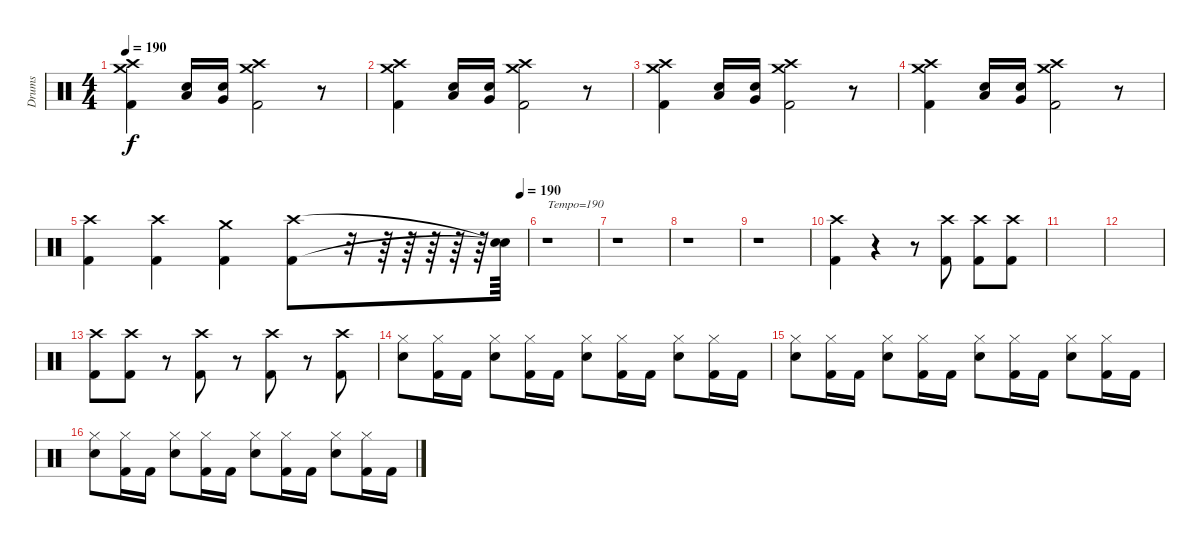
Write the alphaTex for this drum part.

\track ("Drums" "Drums") {instrument percussion}
\staff {score}
\articulation defaults
\ts (4 4)
\tempo 190
\clef neutral
\ks c
("Crash high (hit)" "Crash medium (hit)" "Kick (hit) 2").4{dy f} ("Low Tom (hit)" "Snare (hit) 2").16 ("Very Low Tom (hit)" "Snare (hit) 2").16 ("Crash high (hit)" "Crash medium (hit)" "Kick (hit) 2").2 r.8 |
("Crash high (hit)" "Crash medium (hit)" "Kick (hit) 2").4 ("Low Tom (hit)" "Snare (hit) 2").16 ("Very Low Tom (hit)" "Snare (hit) 2").16 ("Crash high (hit)" "Crash medium (hit)" "Kick (hit) 2").2 r.8 |
("Crash high (hit)" "Crash medium (hit)" "Kick (hit) 2").4 ("Low Tom (hit)" "Snare (hit) 2").16 ("Very Low Tom (hit)" "Snare (hit) 2").16 ("Crash high (hit)" "Crash medium (hit)" "Kick (hit) 2").2 r.8 |
("Crash high (hit)" "Crash medium (hit)" "Kick (hit) 2").4 ("Low Tom (hit)" "Snare (hit) 2").16 ("Very Low Tom (hit)" "Snare (hit) 2").16 ("Crash high (hit)" "Crash medium (hit)" "Kick (hit) 2").2 r.8 |
\tempo (190 0.984375)
("Crash high (hit)" "Kick (hit) 2").4 ("Crash high (hit)" "Kick (hit) 2").4 ("Crash medium (hit)" "Kick (hit) 2").4 ("Crash high (hit)" "Kick (hit) 2").8 r.32 r.64 r.64 r.64 r.64 r.64 ("Snare (hit)"{t} "Snare (hit)"{t}).64 |
r.1{txt "Tempo=190"} |
r.1 |
r.1 |
r.1 |
("Crash high (hit)" "Kick (hit) 2").4 r.4 r.8 ("Crash high (hit)" "Kick (hit) 2").8 ("Crash high (hit)" "Kick (hit) 2").8 ("Crash high (hit)" "Kick (hit) 2").8 |
|
|
("Crash high (hit)" "Kick (hit) 2").8 ("Crash high (hit)" "Kick (hit) 2").8 r.8 ("Crash high (hit)" "Kick (hit) 2").8 r.8 ("Crash high (hit)" "Kick (hit) 2").8 r.8 ("Crash high (hit)" "Kick (hit) 2").8 |
("Snare (hit) 2" "Hi-Hat (closed)").8 ("Kick (hit) 2" "Hi-Hat (closed)").16 "Kick (hit) 2".16 ("Snare (hit) 2" "Hi-Hat (closed)").8 ("Kick (hit) 2" "Hi-Hat (closed)").16 "Kick (hit) 2".16 ("Snare (hit) 2" "Hi-Hat (closed)").8 ("Kick (hit) 2" "Hi-Hat (closed)").16 "Kick (hit) 2".16 ("Snare (hit) 2" "Hi-Hat (closed)").8 ("Kick (hit) 2" "Hi-Hat (closed)").16 "Kick (hit) 2".16 |
("Snare (hit) 2" "Hi-Hat (closed)").8 ("Kick (hit) 2" "Hi-Hat (closed)").16 "Kick (hit) 2".16 ("Snare (hit) 2" "Hi-Hat (closed)").8 ("Kick (hit) 2" "Hi-Hat (closed)").16 "Kick (hit) 2".16 ("Snare (hit) 2" "Hi-Hat (closed)").8 ("Kick (hit) 2" "Hi-Hat (closed)").16 "Kick (hit) 2".16 ("Snare (hit) 2" "Hi-Hat (closed)").8 ("Kick (hit) 2" "Hi-Hat (closed)").16 "Kick (hit) 2".16 |
("Snare (hit) 2" "Hi-Hat (closed)").8 ("Kick (hit) 2" "Hi-Hat (closed)").16 "Kick (hit) 2".16 ("Snare (hit) 2" "Hi-Hat (closed)").8 ("Kick (hit) 2" "Hi-Hat (closed)").16 "Kick (hit) 2".16 ("Snare (hit) 2" "Hi-Hat (closed)").8 ("Kick (hit) 2" "Hi-Hat (closed)").16 "Kick (hit) 2".16 ("Snare (hit) 2" "Hi-Hat (closed)").8 ("Kick (hit) 2" "Hi-Hat (closed)").16 "Kick (hit) 2".16
